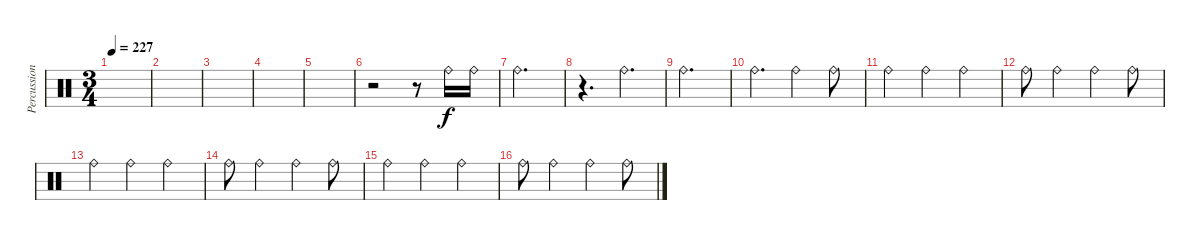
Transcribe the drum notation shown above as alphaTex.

\track ("Percussion" "Percussion") {instrument percussion}
\staff {score}
\articulation defaults
\ts (3 4)
\tempo 227
\clef neutral
\ks c
|
|
|
|
|
r.2 r.8 "Ride (bell)".16 "Ride (bell)".16 |
"Ride (bell)".2{d} |
r.4{d} "Ride (bell)".4{d} |
"Ride (bell)".2{d} |
"Ride (bell)".4{d} "Ride (bell)".4 "Ride (bell)".8 |
"Ride (bell)".4 "Ride (bell)".4 "Ride (bell)".4 |
"Ride (bell)".8 "Ride (bell)".4 "Ride (bell)".4 "Ride (bell)".8 |
"Ride (bell)".4 "Ride (bell)".4 "Ride (bell)".4 |
"Ride (bell)".8 "Ride (bell)".4 "Ride (bell)".4 "Ride (bell)".8 |
"Ride (bell)".4 "Ride (bell)".4 "Ride (bell)".4 |
"Ride (bell)".8 "Ride (bell)".4 "Ride (bell)".4 "Ride (bell)".8
